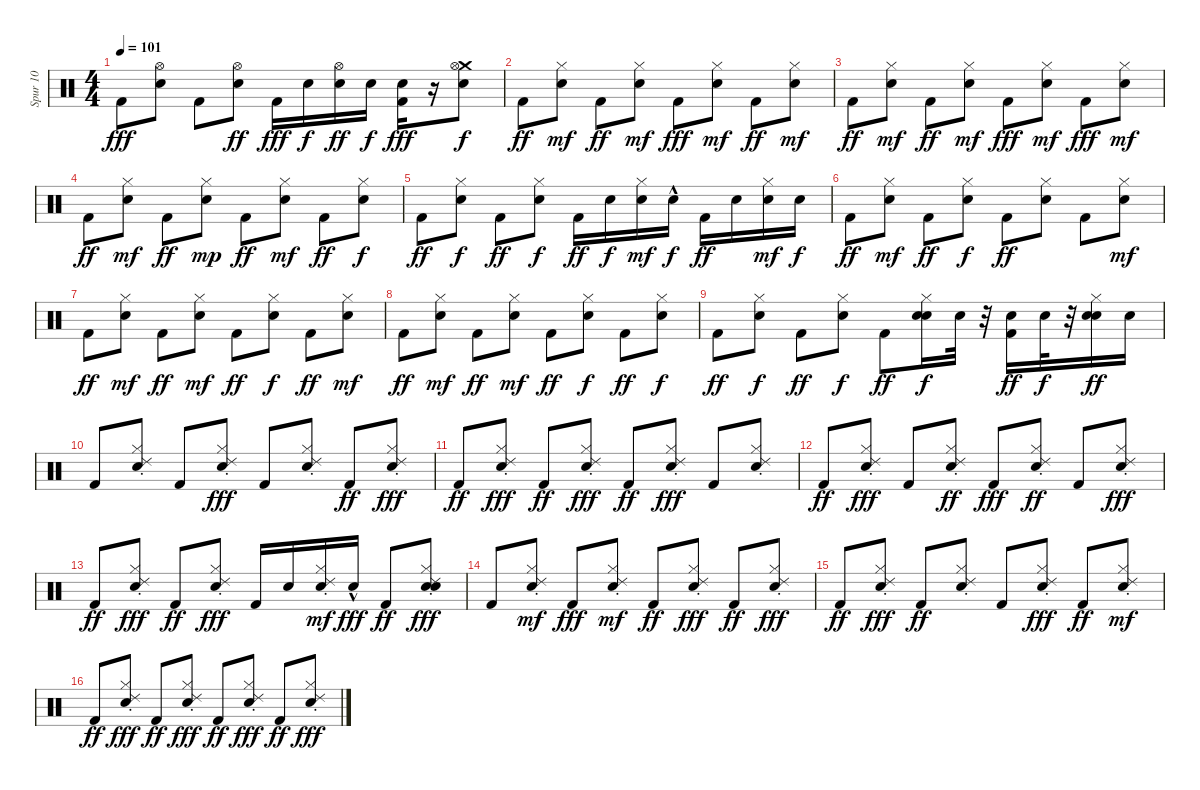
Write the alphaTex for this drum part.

\track ("Spur 10" "Spur 10") {instrument percussion}
\staff {score}
\articulation defaults
\ts (4 4)
\tempo 101
\clef neutral
\ks c "Kick (hit) 2".8{dy fff}
("Snare (hit) 2" "Hi-Hat (open)").8 "Kick (hit) 2".8 ("Snare (hit) 2" "Hi-Hat (open)").8{dy ff} "Kick (hit) 2".16{dy fff} "Snare (hit) 2".16{dy f} ("Snare (hit) 2" "Hi-Hat (open)").16{dy ff} "Snare (hit) 2".16{dy f} ("Kick (hit) 2" "Metronome (bell)").16{dy fff} r.16 ("Crash medium (hit)" "Hi-Hat (open)" "Snare (hit) 2").8{dy f} |
"Kick (hit) 2".8{dy ff} ("Hi-Hat (closed)" "Snare (hit) 2").8{dy mf} "Kick (hit) 2".8{dy ff} ("Hi-Hat (closed)" "Snare (hit) 2").8{dy mf} "Kick (hit) 2".8{dy fff} ("Hi-Hat (closed)" "Snare (hit) 2").8{dy mf} "Kick (hit) 2".8{dy ff} ("Snare (hit) 2" "Hi-Hat (closed)").8{dy mf} |
"Kick (hit) 2".8{dy ff} ("Hi-Hat (closed)" "Snare (hit) 2").8{dy mf} "Kick (hit) 2".8{dy ff} ("Snare (hit) 2" "Hi-Hat (closed)").8{dy mf} "Kick (hit) 2".8{dy fff} ("Hi-Hat (closed)" "Snare (hit) 2").8{dy mf} "Kick (hit) 2".8{dy fff} ("Snare (hit) 2" "Hi-Hat (closed)").8{dy mf} |
"Kick (hit) 2".8{dy ff} ("Hi-Hat (closed)" "Snare (hit) 2").8{dy mf} "Kick (hit) 2".8{dy ff} ("Hi-Hat (closed)" "Snare (hit) 2").8{dy mp} "Kick (hit) 2".8{dy ff} ("Hi-Hat (closed)" "Snare (hit) 2").8{dy mf} "Kick (hit) 2".8{dy ff} ("Hi-Hat (closed)" "Snare (hit) 2").8{dy f} |
"Kick (hit) 2".8{dy ff} ("Snare (hit) 2" "Hi-Hat (closed)").8{dy f} "Kick (hit) 2".8{dy ff} ("Hi-Hat (closed)" "Snare (hit) 2").8{dy f} "Kick (hit) 2".16{dy ff} "Snare (hit) 2".16{dy f} ("Hi-Hat (closed)" "Snare (hit) 2").16{dy mf} "Snare (hit) 2"{hac}.16{dy f} "Kick (hit) 2".16{dy ff} "Snare (hit) 2".16 ("Snare (hit) 2" "Hi-Hat (closed)").16{dy mf} "Snare (hit) 2".16{dy f} |
"Kick (hit) 2".8{dy ff} ("Hi-Hat (closed)" "Snare (hit) 2").8{dy mf} "Kick (hit) 2".8{dy ff} ("Hi-Hat (closed)" "Snare (hit) 2").8{dy f} "Kick (hit) 2".8{dy ff} ("Hi-Hat (closed)" "Snare (hit) 2").8 "Kick (hit) 2".8 ("Hi-Hat (closed)" "Snare (hit) 2").8{dy mf} |
"Kick (hit) 2".8{dy ff} ("Hi-Hat (closed)" "Snare (hit) 2").8{dy mf} "Kick (hit) 2".8{dy ff} ("Hi-Hat (closed)" "Snare (hit) 2").8{dy mf} "Kick (hit) 2".8{dy ff} ("Hi-Hat (closed)" "Snare (hit) 2").8{dy f} "Kick (hit) 2".8{dy ff} ("Hi-Hat (closed)" "Snare (hit) 2").8{dy mf} |
"Kick (hit) 2".8{dy ff} ("Snare (hit) 2" "Hi-Hat (closed)").8{dy mf} "Kick (hit) 2".8{dy ff} ("Snare (hit) 2" "Hi-Hat (closed)").8{dy mf} "Kick (hit) 2".8{dy ff} ("Snare (hit) 2" "Hi-Hat (closed)").8{dy f} "Kick (hit) 2".8{dy ff} ("Hi-Hat (closed)" "Snare (hit) 2").8{dy f} |
"Kick (hit) 2".8{dy ff} ("Hi-Hat (closed)" "Snare (hit) 2").8{dy f} "Kick (hit) 2".8{dy ff} ("Hi-Hat (closed)" "Snare (hit) 2").8{dy f} "Kick (hit) 2".8{dy ff} ("Snare (hit) 2" "Snare (hit) 2" "Hi-Hat (closed)").16{dy f} "Snare (hit) 2".32 r.32 ("Snare (hit) 2" "Kick (hit) 2").16{dy ff} "Snare (hit) 2".32{dy f} r.32 ("Snare (hit) 2" "Hi-Hat (closed)" "Snare (hit) 2").16{dy ff} "Snare (hit) 2".16 |
"Kick (hit) 2".8 ("Ride (choke) 2" "Hi-Hat (closed)" "Snare (hit) 2").8 "Kick (hit) 2".8 ("Ride (choke) 2" "Snare (hit) 2" "Hi-Hat (closed)").8{dy fff} "Kick (hit) 2".8 ("Ride (choke) 2" "Snare (hit) 2" "Hi-Hat (closed)").8 "Kick (hit) 2".8{dy ff} ("Ride (choke) 2" "Snare (hit) 2" "Hi-Hat (closed)").8{dy fff} |
"Kick (hit) 2".8{dy ff} ("Ride (choke) 2" "Hi-Hat (closed)" "Snare (hit) 2").8{dy fff} "Kick (hit) 2".8{dy ff} ("Ride (choke) 2" "Hi-Hat (closed)" "Snare (hit) 2").8{dy fff} "Kick (hit) 2".8{dy ff} ("Ride (choke) 2" "Hi-Hat (closed)" "Snare (hit) 2").8{dy fff} "Kick (hit) 2".8 ("Ride (choke) 2" "Hi-Hat (closed)" "Snare (hit) 2").8 |
"Kick (hit) 2".8{dy ff} ("Ride (choke) 2" "Hi-Hat (closed)" "Snare (hit) 2").8{dy fff} "Kick (hit) 2".8 ("Ride (choke) 2" "Hi-Hat (closed)" "Snare (hit) 2").8{dy ff} "Kick (hit) 2".8{dy fff} ("Ride (choke) 2" "Hi-Hat (closed)" "Snare (hit) 2").8{dy ff} "Kick (hit) 2".8 ("Ride (choke) 2" "Hi-Hat (closed)" "Snare (hit) 2").8{dy fff} |
"Kick (hit) 2".8{dy ff} ("Ride (choke) 2" "Hi-Hat (closed)" "Snare (hit) 2").8{dy fff} "Kick (hit) 2".8{dy ff} ("Ride (choke) 2" "Hi-Hat (closed)" "Snare (hit) 2").8{dy fff} "Kick (hit) 2".16 "Snare (hit) 2".16 ("Ride (choke) 2" "Hi-Hat (closed)" "Snare (hit) 2").16{dy mf} "Snare (hit) 2"{hac}.16{dy fff} "Kick (hit) 2".8{dy ff} ("Ride (choke) 2" "Snare (hit) 2" "Hi-Hat (closed)" "Snare (hit) 2").8{dy fff} |
"Kick (hit) 2".8 ("Ride (choke) 2" "Snare (hit) 2" "Hi-Hat (closed)").8{dy mf} "Kick (hit) 2".8{dy fff} ("Ride (choke) 2" "Hi-Hat (closed)" "Snare (hit) 2").8{dy mf} "Kick (hit) 2".8{dy ff} ("Ride (choke) 2" "Hi-Hat (closed)" "Snare (hit) 2").8{dy fff} "Kick (hit) 2".8{dy ff} ("Ride (choke) 2" "Hi-Hat (closed)" "Snare (hit) 2").8{dy fff} |
"Kick (hit) 2".8{dy ff} ("Ride (choke) 2" "Hi-Hat (closed)" "Snare (hit) 2").8{dy fff} "Kick (hit) 2".8{dy ff} ("Ride (choke) 2" "Hi-Hat (closed)" "Snare (hit) 2").8 "Kick (hit) 2".8 ("Ride (choke) 2" "Hi-Hat (closed)" "Snare (hit) 2").8{dy fff} "Kick (hit) 2".8{dy ff} ("Ride (choke) 2" "Hi-Hat (closed)" "Snare (hit) 2").8{dy mf} |
"Kick (hit) 2".8{dy ff} ("Ride (choke) 2" "Hi-Hat (closed)" "Snare (hit) 2").8{dy fff} "Kick (hit) 2".8{dy ff} ("Ride (choke) 2" "Hi-Hat (closed)" "Snare (hit) 2").8{dy fff} "Kick (hit) 2".8{dy ff} ("Ride (choke) 2" "Snare (hit) 2" "Hi-Hat (closed)").8{dy fff} "Kick (hit) 2".8{dy ff} ("Ride (choke) 2" "Snare (hit) 2" "Hi-Hat (closed)").8{dy fff}
